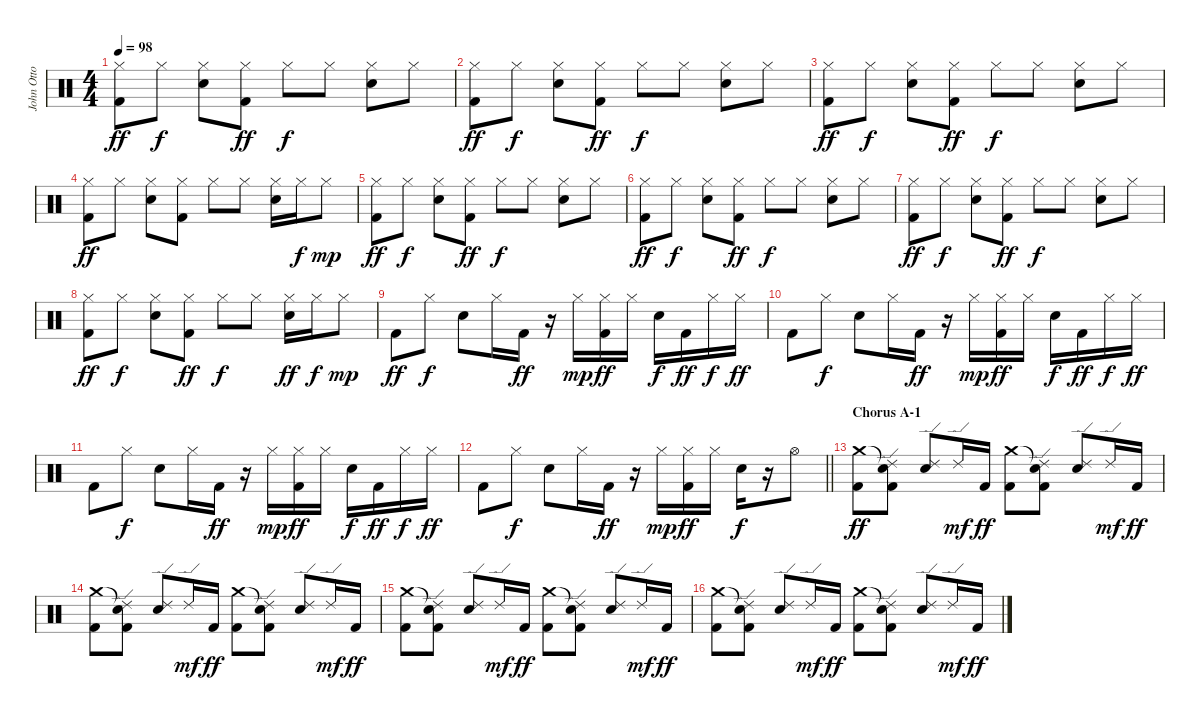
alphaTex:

\track ("John Otto (Drums)" "John Otto ") {instrument percussion}
\staff {score}
\articulation defaults
\ts (4 4)
\tempo 98
\clef neutral
\ks c
("Hi-Hat (closed)" "Kick (hit) 2").8{dy ff} "Hi-Hat (closed)".8{dy f} ("Hi-Hat (closed)" "Snare (hit) 2").8 ("Hi-Hat (closed)" "Kick (hit) 2").8{dy ff} "Hi-Hat (closed)".8{dy f} "Hi-Hat (closed)".8 ("Hi-Hat (closed)" "Snare (hit) 2").8 "Hi-Hat (closed)".8 |
("Hi-Hat (closed)" "Kick (hit) 2").8{dy ff} "Hi-Hat (closed)".8{dy f} ("Hi-Hat (closed)" "Snare (hit) 2").8 ("Hi-Hat (closed)" "Kick (hit) 2").8{dy ff} "Hi-Hat (closed)".8{dy f} "Hi-Hat (closed)".8 ("Hi-Hat (closed)" "Snare (hit) 2").8 "Hi-Hat (closed)".8 |
("Hi-Hat (closed)" "Kick (hit) 2").8{dy ff} "Hi-Hat (closed)".8{dy f} ("Hi-Hat (closed)" "Snare (hit) 2").8 ("Hi-Hat (closed)" "Kick (hit) 2").8{dy ff} "Hi-Hat (closed)".8{dy f} "Hi-Hat (closed)".8 ("Hi-Hat (closed)" "Snare (hit) 2").8 "Hi-Hat (closed)".8 |
("Hi-Hat (closed)" "Kick (hit) 2").8{dy ff} "Hi-Hat (closed)".8 ("Hi-Hat (closed)" "Snare (hit) 2").8 ("Hi-Hat (closed)" "Kick (hit) 2").8 "Hi-Hat (closed)".8 "Hi-Hat (closed)".8 ("Hi-Hat (closed)" "Snare (hit) 2").16 "Hi-Hat (closed)".16{dy f} "Hi-Hat (closed)".8{dy mp} |
("Hi-Hat (closed)" "Kick (hit) 2").8{dy ff} "Hi-Hat (closed)".8{dy f} ("Hi-Hat (closed)" "Snare (hit) 2").8 ("Hi-Hat (closed)" "Kick (hit) 2").8{dy ff} "Hi-Hat (closed)".8{dy f} "Hi-Hat (closed)".8 ("Hi-Hat (closed)" "Snare (hit) 2").8 "Hi-Hat (closed)".8 |
("Hi-Hat (closed)" "Kick (hit) 2").8{dy ff} "Hi-Hat (closed)".8{dy f} ("Hi-Hat (closed)" "Snare (hit) 2").8 ("Hi-Hat (closed)" "Kick (hit) 2").8{dy ff} "Hi-Hat (closed)".8{dy f} "Hi-Hat (closed)".8 ("Hi-Hat (closed)" "Snare (hit) 2").8 "Hi-Hat (closed)".8 |
("Hi-Hat (closed)" "Kick (hit) 2").8{dy ff} "Hi-Hat (closed)".8{dy f} ("Hi-Hat (closed)" "Snare (hit) 2").8 ("Hi-Hat (closed)" "Kick (hit) 2").8{dy ff} "Hi-Hat (closed)".8{dy f} "Hi-Hat (closed)".8 ("Hi-Hat (closed)" "Snare (hit) 2").8 "Hi-Hat (closed)".8 |
("Hi-Hat (closed)" "Kick (hit) 2").8{dy ff} "Hi-Hat (closed)".8{dy f} ("Hi-Hat (closed)" "Snare (hit) 2").8 ("Hi-Hat (closed)" "Kick (hit) 2").8{dy ff} "Hi-Hat (closed)".8{dy f} "Hi-Hat (closed)".8 ("Hi-Hat (closed)" "Snare (hit) 2").16{dy ff} "Hi-Hat (closed)".16{dy f} "Hi-Hat (closed)".8{dy mp} |
"Kick (hit) 2".8{dy ff} "Hi-Hat (closed)".8{dy f} "Snare (hit) 2".8 "Hi-Hat (closed)".16 "Kick (hit) 2".16{dy ff} r.16 "Hi-Hat (closed)".16{dy mp} ("Hi-Hat (closed)" "Kick (hit) 2").16{dy ff} "Hi-Hat (closed)".16 "Snare (hit) 2".16{dy f} "Kick (hit) 2".16{dy ff} "Hi-Hat (closed)".16{dy f} "Hi-Hat (closed)".16{dy ff} |
"Kick (hit) 2".8 "Hi-Hat (closed)".8{dy f} "Snare (hit) 2".8 "Hi-Hat (closed)".16 "Kick (hit) 2".16{dy ff} r.16 "Hi-Hat (closed)".16{dy mp} ("Hi-Hat (closed)" "Kick (hit) 2").16{dy ff} "Hi-Hat (closed)".16 "Snare (hit) 2".16{dy f} "Kick (hit) 2".16{dy ff} "Hi-Hat (closed)".16{dy f} "Hi-Hat (closed)".16{dy ff} |
"Kick (hit) 2".8 "Hi-Hat (closed)".8{dy f} "Snare (hit) 2".8 "Hi-Hat (closed)".16 "Kick (hit) 2".16{dy ff} r.16 "Hi-Hat (closed)".16{dy mp} ("Hi-Hat (closed)" "Kick (hit) 2").16{dy ff} "Hi-Hat (closed)".16 "Snare (hit) 2".16{dy f} "Kick (hit) 2".16{dy ff} "Hi-Hat (closed)".16{dy f} "Hi-Hat (closed)".16{dy ff} |
\barLineRight lightlight "Kick (hit) 2".8 "Hi-Hat (closed)".8{dy f} "Snare (hit) 2".8 "Hi-Hat (closed)".16 "Kick (hit) 2".16{dy ff}
r.16 "Hi-Hat (closed)".16{dy mp} ("Hi-Hat (closed)" "Kick (hit) 2").16{dy ff} "Hi-Hat (closed)".16 "Snare (hit) 2".16{dy f} r.16 "Hi-Hat (open)".8 |
\section ("" "Chorus A-1")
("Crash medium (hit)" "Kick (hit) 2").8{dy ff} ("Snare (hit)"{t} "Ride (edge) 2" "Kick (hit) 2").8 ("Ride (edge) 2" "Snare (hit) 2").8 "Ride (edge) 2".16{dy mf} "Kick (hit) 2".16{dy ff} ("Crash medium (hit)" "Kick (hit) 2").8 ("Snare (hit)"{t} "Ride (edge) 2" "Kick (hit) 2").8 ("Ride (edge) 2" "Snare (hit) 2").8 "Ride (edge) 2".16{dy mf} "Kick (hit) 2".16{dy ff} |
("Crash medium (hit)" "Kick (hit) 2").8 ("Snare (hit)"{t} "Ride (edge) 2" "Kick (hit) 2").8 ("Ride (edge) 2" "Snare (hit) 2").8 "Ride (edge) 2".16{dy mf} "Kick (hit) 2".16{dy ff} ("Crash medium (hit)" "Kick (hit) 2").8 ("Snare (hit)"{t} "Ride (edge) 2" "Kick (hit) 2").8 ("Ride (edge) 2" "Snare (hit) 2").8 "Ride (edge) 2".16{dy mf} "Kick (hit) 2".16{dy ff} |
("Crash medium (hit)" "Kick (hit) 2").8 ("Snare (hit)"{t} "Ride (edge) 2" "Kick (hit) 2").8 ("Ride (edge) 2" "Snare (hit) 2").8 "Ride (edge) 2".16{dy mf} "Kick (hit) 2".16{dy ff} ("Crash medium (hit)" "Kick (hit) 2").8 ("Snare (hit)"{t} "Ride (edge) 2" "Kick (hit) 2").8 ("Ride (edge) 2" "Snare (hit) 2").8 "Ride (edge) 2".16{dy mf} "Kick (hit) 2".16{dy ff} |
("Crash medium (hit)" "Kick (hit) 2").8 ("Snare (hit)"{t} "Ride (edge) 2" "Kick (hit) 2").8 ("Ride (edge) 2" "Snare (hit) 2").8 "Ride (edge) 2".16{dy mf} "Kick (hit) 2".16{dy ff} ("Crash medium (hit)" "Kick (hit) 2").8 ("Snare (hit)"{t} "Ride (edge) 2" "Kick (hit) 2").8 ("Ride (edge) 2" "Snare (hit) 2").8 "Ride (edge) 2".16{dy mf} "Kick (hit) 2".16{dy ff}
